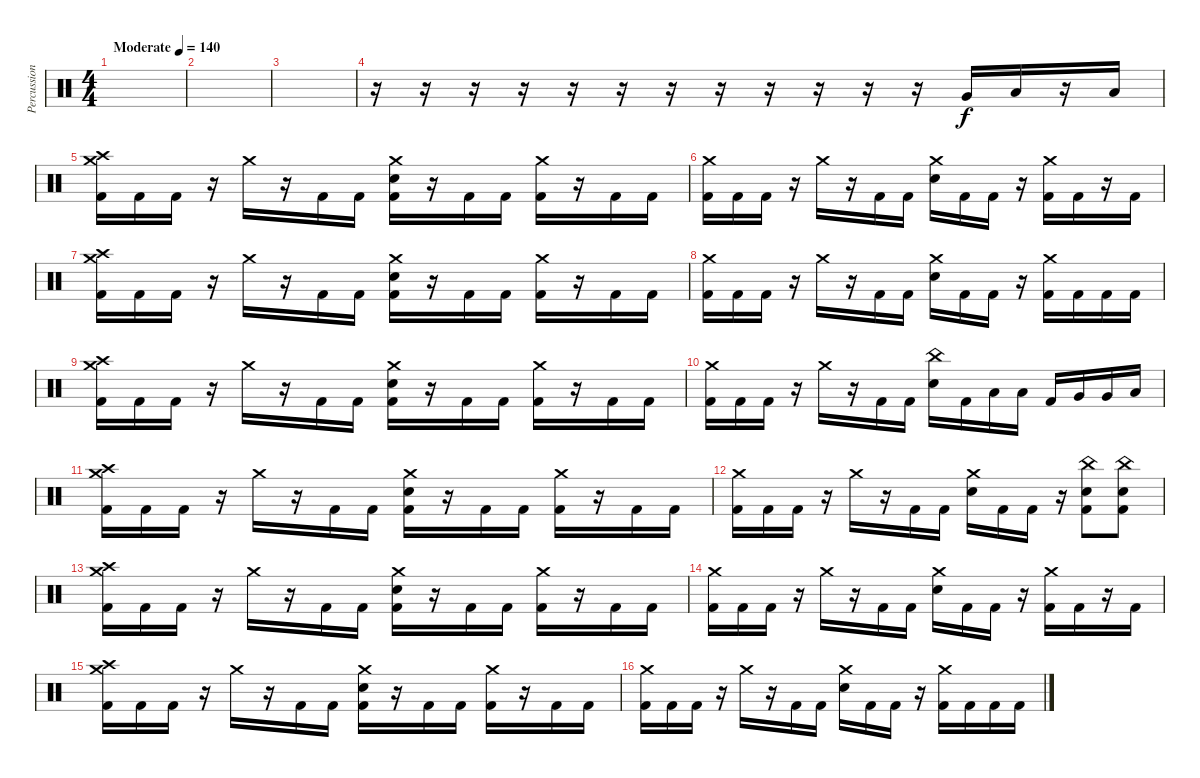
\track ("Percussion" "Percussion") {instrument percussion}
\staff {score}
\articulation defaults
\ts (4 4)
\tempo (140 "Moderate")
\clef neutral
\ks c
|
|
|
r.16 r.16 r.16 r.16 r.16 r.16 r.16 r.16 r.16 r.16 r.16 r.16 "Very Low Tom (hit)".16 "Low Floor Tom (hit)".16 r.16 "Low Floor Tom (hit)".16 |
("Crash high (hit)" "Crash medium (hit)" "Kick (hit) 2").16 "Kick (hit) 2".16 "Kick (hit) 2".16 r.16 "Crash medium (hit)".16 r.16 "Kick (hit) 2".16 "Kick (hit) 2".16 ("Crash medium (hit)" "Electric Snare (hit)" "Kick (hit) 2").16 r.16 "Kick (hit) 2".16 "Kick (hit) 2".16 ("Crash medium (hit)" "Kick (hit) 2").16 r.16 "Kick (hit) 2".16 "Kick (hit) 2".16 |
("Crash medium (hit)" "Kick (hit) 2").16 "Kick (hit) 2".16 "Kick (hit) 2".16 r.16 "Crash medium (hit)".16 r.16 "Kick (hit) 2".16 "Kick (hit) 2".16 ("Crash medium (hit)" "Electric Snare (hit)").16 "Kick (hit) 2".16 "Kick (hit) 2".16 r.16 ("Crash medium (hit)" "Kick (hit) 2").16 "Kick (hit) 2".16 r.16 "Kick (hit) 2".16 |
("Crash high (hit)" "Crash medium (hit)" "Kick (hit) 2").16 "Kick (hit) 2".16 "Kick (hit) 2".16 r.16 "Crash medium (hit)".16 r.16 "Kick (hit) 2".16 "Kick (hit) 2".16 ("Crash medium (hit)" "Electric Snare (hit)" "Kick (hit) 2").16 r.16 "Kick (hit) 2".16 "Kick (hit) 2".16 ("Crash medium (hit)" "Kick (hit) 2").16 r.16 "Kick (hit) 2".16 "Kick (hit) 2".16 |
("Crash medium (hit)" "Kick (hit) 2").16 "Kick (hit) 2".16 "Kick (hit) 2".16 r.16 "Crash medium (hit)".16 r.16 "Kick (hit) 2".16 "Kick (hit) 2".16 ("Crash medium (hit)" "Electric Snare (hit)").16 "Kick (hit) 2".16 "Kick (hit) 2".16 r.16 ("Crash medium (hit)" "Kick (hit) 2").16 "Kick (hit) 2".16 "Kick (hit) 2".16 "Kick (hit) 2".16 |
("Crash high (hit)" "Crash medium (hit)" "Kick (hit) 2").16 "Kick (hit) 2".16 "Kick (hit) 2".16 r.16 "Crash medium (hit)".16 r.16 "Kick (hit) 2".16 "Kick (hit) 2".16 ("Crash medium (hit)" "Electric Snare (hit)" "Kick (hit) 2").16 r.16 "Kick (hit) 2".16 "Kick (hit) 2".16 ("Crash medium (hit)" "Kick (hit) 2").16 r.16 "Kick (hit) 2".16 "Kick (hit) 2".16 |
("Crash medium (hit)" "Kick (hit) 2").16 "Kick (hit) 2".16 "Kick (hit) 2".16 r.16 "Crash medium (hit)".16 r.16 "Kick (hit) 2".16 "Kick (hit) 2".16 ("China (hit)" "Electric Snare (hit)").16 "Kick (hit) 2".16 "Low Tom (hit)".16 "Low Tom (hit)".16 "Kick (hit) 2".16 "Very Low Tom (hit)".16 "Very Low Tom (hit)".16 "Low Floor Tom (hit)".16 |
("Crash high (hit)" "Crash medium (hit)" "Kick (hit) 2").16 "Kick (hit) 2".16 "Kick (hit) 2".16 r.16 "Crash medium (hit)".16 r.16 "Kick (hit) 2".16 "Kick (hit) 2".16 ("Crash medium (hit)" "Electric Snare (hit)" "Kick (hit) 2").16 r.16 "Kick (hit) 2".16 "Kick (hit) 2".16 ("Crash medium (hit)" "Kick (hit) 2").16 r.16 "Kick (hit) 2".16 "Kick (hit) 2".16 |
("Crash medium (hit)" "Kick (hit) 2").16 "Kick (hit) 2".16 "Kick (hit) 2".16 r.16 "Crash medium (hit)".16 r.16 "Kick (hit) 2".16 "Kick (hit) 2".16 ("Crash medium (hit)" "Electric Snare (hit)").16 "Kick (hit) 2".16 "Kick (hit) 2".16 r.16 ("China (hit)" "Electric Snare (hit)" "Kick (hit) 2").8 ("China (hit)" "Electric Snare (hit)" "Kick (hit) 2").8 |
("Crash high (hit)" "Crash medium (hit)" "Kick (hit) 2").16 "Kick (hit) 2".16 "Kick (hit) 2".16 r.16 "Crash medium (hit)".16 r.16 "Kick (hit) 2".16 "Kick (hit) 2".16 ("Crash medium (hit)" "Electric Snare (hit)" "Kick (hit) 2").16 r.16 "Kick (hit) 2".16 "Kick (hit) 2".16 ("Crash medium (hit)" "Kick (hit) 2").16 r.16 "Kick (hit) 2".16 "Kick (hit) 2".16 |
("Crash medium (hit)" "Kick (hit) 2").16 "Kick (hit) 2".16 "Kick (hit) 2".16 r.16 "Crash medium (hit)".16 r.16 "Kick (hit) 2".16 "Kick (hit) 2".16 ("Crash medium (hit)" "Electric Snare (hit)").16 "Kick (hit) 2".16 "Kick (hit) 2".16 r.16 ("Crash medium (hit)" "Kick (hit) 2").16 "Kick (hit) 2".16 r.16 "Kick (hit) 2".16 |
("Crash high (hit)" "Crash medium (hit)" "Kick (hit) 2").16 "Kick (hit) 2".16 "Kick (hit) 2".16 r.16 "Crash medium (hit)".16 r.16 "Kick (hit) 2".16 "Kick (hit) 2".16 ("Crash medium (hit)" "Electric Snare (hit)" "Kick (hit) 2").16 r.16 "Kick (hit) 2".16 "Kick (hit) 2".16 ("Crash medium (hit)" "Kick (hit) 2").16 r.16 "Kick (hit) 2".16 "Kick (hit) 2".16 |
("Crash medium (hit)" "Kick (hit) 2").16 "Kick (hit) 2".16 "Kick (hit) 2".16 r.16 "Crash medium (hit)".16 r.16 "Kick (hit) 2".16 "Kick (hit) 2".16 ("Crash medium (hit)" "Electric Snare (hit)").16 "Kick (hit) 2".16 "Kick (hit) 2".16 r.16 ("Crash medium (hit)" "Kick (hit) 2").16 "Kick (hit) 2".16 "Kick (hit) 2".16 "Kick (hit) 2".16
